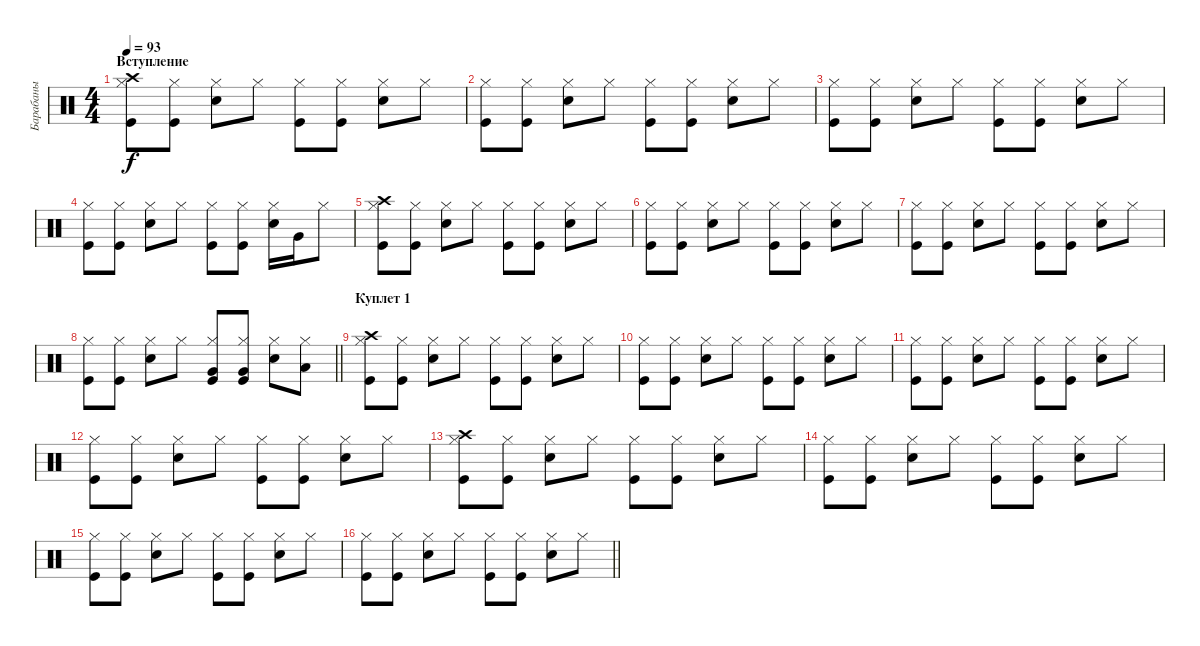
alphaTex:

\track ("Барабаны" "Барабаны") {instrument percussion}
\staff {score}
\articulation defaults
\ts (4 4)
\section ("" "Вступление")
\tempo 93
\clef neutral
\ks c
("Kick (hit)" "Hi-Hat (closed)" "Crash high (hit)").8{dy f} ("Kick (hit)" "Hi-Hat (closed)").8 ("Snare (hit) 2" "Hi-Hat (closed)").8 "Hi-Hat (closed)".8 ("Kick (hit)" "Hi-Hat (closed)").8 ("Kick (hit)" "Hi-Hat (closed)").8 ("Snare (hit) 2" "Hi-Hat (closed)").8 "Hi-Hat (closed)".8 |
("Kick (hit)" "Hi-Hat (closed)").8 ("Kick (hit)" "Hi-Hat (closed)").8 ("Snare (hit) 2" "Hi-Hat (closed)").8 "Hi-Hat (closed)".8 ("Kick (hit)" "Hi-Hat (closed)").8 ("Kick (hit)" "Hi-Hat (closed)").8 ("Snare (hit) 2" "Hi-Hat (closed)").8 "Hi-Hat (closed)".8 |
("Kick (hit)" "Hi-Hat (closed)").8 ("Kick (hit)" "Hi-Hat (closed)").8 ("Snare (hit) 2" "Hi-Hat (closed)").8 "Hi-Hat (closed)".8 ("Kick (hit)" "Hi-Hat (closed)").8 ("Kick (hit)" "Hi-Hat (closed)").8 ("Snare (hit) 2" "Hi-Hat (closed)").8 "Hi-Hat (closed)".8 |
("Kick (hit)" "Hi-Hat (closed)").8 ("Kick (hit)" "Hi-Hat (closed)").8 ("Snare (hit) 2" "Hi-Hat (closed)").8 "Hi-Hat (closed)".8 ("Kick (hit)" "Hi-Hat (closed)").8 ("Kick (hit)" "Hi-Hat (closed)").8 ("Snare (hit) 2" "Hi-Hat (closed)").16 "Very Low Tom (hit)".16 "Hi-Hat (closed)".8 |
("Kick (hit)" "Hi-Hat (closed)" "Crash high (hit)").8 ("Kick (hit)" "Hi-Hat (closed)").8 ("Snare (hit) 2" "Hi-Hat (closed)").8 "Hi-Hat (closed)".8 ("Kick (hit)" "Hi-Hat (closed)").8 ("Kick (hit)" "Hi-Hat (closed)").8 ("Snare (hit) 2" "Hi-Hat (closed)").8 "Hi-Hat (closed)".8 |
("Kick (hit)" "Hi-Hat (closed)").8 ("Kick (hit)" "Hi-Hat (closed)").8 ("Snare (hit) 2" "Hi-Hat (closed)").8 "Hi-Hat (closed)".8 ("Kick (hit)" "Hi-Hat (closed)").8 ("Kick (hit)" "Hi-Hat (closed)").8 ("Snare (hit) 2" "Hi-Hat (closed)").8 "Hi-Hat (closed)".8 |
("Kick (hit)" "Hi-Hat (closed)").8 ("Kick (hit)" "Hi-Hat (closed)").8 ("Snare (hit) 2" "Hi-Hat (closed)").8 "Hi-Hat (closed)".8 ("Kick (hit)" "Hi-Hat (closed)").8 ("Kick (hit)" "Hi-Hat (closed)").8 ("Snare (hit) 2" "Hi-Hat (closed)").8 "Hi-Hat (closed)".8 |
\barLineRight lightlight
("Kick (hit)" "Hi-Hat (closed)").8 ("Kick (hit)" "Hi-Hat (closed)").8 ("Snare (hit) 2" "Hi-Hat (closed)").8 "Hi-Hat (closed)".8 ("Kick (hit)" "Hi-Hat (closed)" "Very Low Tom (hit)").8 ("Kick (hit)" "Hi-Hat (closed)" "Very Low Tom (hit)").8 ("Snare (hit) 2" "Hi-Hat (closed)").8 ("Hi-Hat (closed)" "Low Floor Tom (hit)").8 |
\section ("" "Куплет 1")
("Kick (hit)" "Hi-Hat (closed)" "Crash high (hit)").8 ("Kick (hit)" "Hi-Hat (closed)").8 ("Snare (hit) 2" "Hi-Hat (closed)").8 "Hi-Hat (closed)".8 ("Kick (hit)" "Hi-Hat (closed)").8 ("Kick (hit)" "Hi-Hat (closed)").8 ("Snare (hit) 2" "Hi-Hat (closed)").8 "Hi-Hat (closed)".8 |
("Kick (hit)" "Hi-Hat (closed)").8 ("Kick (hit)" "Hi-Hat (closed)").8 ("Snare (hit) 2" "Hi-Hat (closed)").8 "Hi-Hat (closed)".8 ("Kick (hit)" "Hi-Hat (closed)").8 ("Kick (hit)" "Hi-Hat (closed)").8 ("Snare (hit) 2" "Hi-Hat (closed)").8 "Hi-Hat (closed)".8 |
("Kick (hit)" "Hi-Hat (closed)").8 ("Kick (hit)" "Hi-Hat (closed)").8 ("Snare (hit) 2" "Hi-Hat (closed)").8 "Hi-Hat (closed)".8 ("Kick (hit)" "Hi-Hat (closed)").8 ("Kick (hit)" "Hi-Hat (closed)").8 ("Snare (hit) 2" "Hi-Hat (closed)").8 "Hi-Hat (closed)".8 |
("Kick (hit)" "Hi-Hat (closed)").8 ("Kick (hit)" "Hi-Hat (closed)").8 ("Snare (hit) 2" "Hi-Hat (closed)").8 "Hi-Hat (closed)".8 ("Kick (hit)" "Hi-Hat (closed)").8 ("Kick (hit)" "Hi-Hat (closed)").8 ("Snare (hit) 2" "Hi-Hat (closed)").8 "Hi-Hat (closed)".8 |
("Kick (hit)" "Hi-Hat (closed)" "Crash high (hit)").8 ("Kick (hit)" "Hi-Hat (closed)").8 ("Snare (hit) 2" "Hi-Hat (closed)").8 "Hi-Hat (closed)".8 ("Kick (hit)" "Hi-Hat (closed)").8 ("Kick (hit)" "Hi-Hat (closed)").8 ("Snare (hit) 2" "Hi-Hat (closed)").8 "Hi-Hat (closed)".8 |
("Kick (hit)" "Hi-Hat (closed)").8 ("Kick (hit)" "Hi-Hat (closed)").8 ("Snare (hit) 2" "Hi-Hat (closed)").8 "Hi-Hat (closed)".8 ("Kick (hit)" "Hi-Hat (closed)").8 ("Kick (hit)" "Hi-Hat (closed)").8 ("Snare (hit) 2" "Hi-Hat (closed)").8 "Hi-Hat (closed)".8 |
("Kick (hit)" "Hi-Hat (closed)").8 ("Kick (hit)" "Hi-Hat (closed)").8 ("Snare (hit) 2" "Hi-Hat (closed)").8 "Hi-Hat (closed)".8 ("Kick (hit)" "Hi-Hat (closed)").8 ("Kick (hit)" "Hi-Hat (closed)").8 ("Snare (hit) 2" "Hi-Hat (closed)").8 "Hi-Hat (closed)".8 |
\barLineRight lightlight
("Kick (hit)" "Hi-Hat (closed)").8 ("Kick (hit)" "Hi-Hat (closed)").8 ("Snare (hit) 2" "Hi-Hat (closed)").8 "Hi-Hat (closed)".8 ("Kick (hit)" "Hi-Hat (closed)").8 ("Kick (hit)" "Hi-Hat (closed)").8 ("Snare (hit) 2" "Hi-Hat (closed)").8 "Hi-Hat (closed)".8
